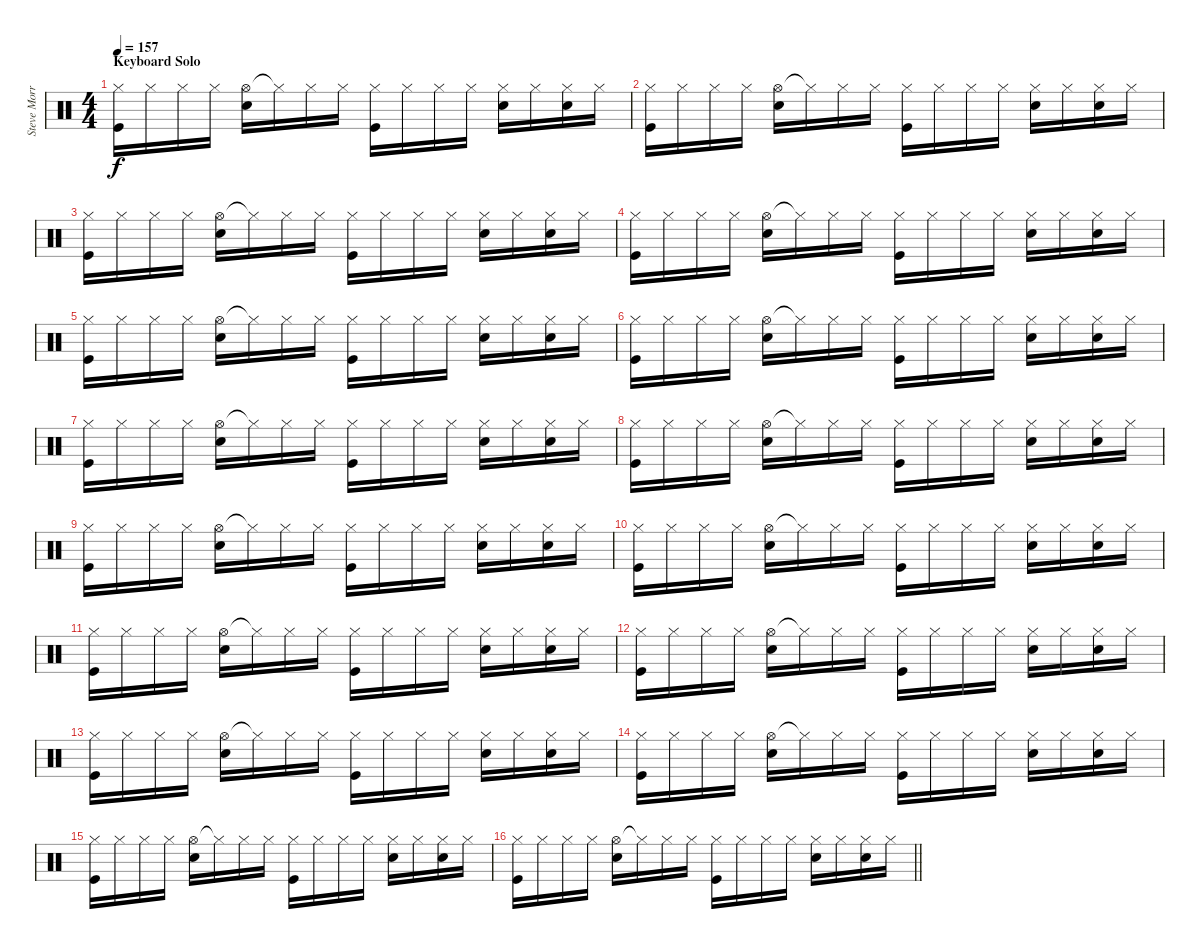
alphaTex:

\track ("Steve Morris" "Steve Morr") {instrument percussion}
\staff {score}
\articulation defaults
\ts (4 4)
\section ("" "Keyboard Solo")
\tempo 157
\clef neutral
\ks c
("Hi-Hat (closed)" "Kick (hit)").16{dy f} "Hi-Hat (closed)".16 "Hi-Hat (closed)".16 "Hi-Hat (closed)".16 ("Hi-Hat (open)" "Electric Snare (hit)").16 "Hi-Hat (closed)"{t}.16 "Hi-Hat (closed)".16 "Hi-Hat (closed)".16 ("Hi-Hat (closed)" "Kick (hit)").16 "Hi-Hat (closed)".16 "Hi-Hat (closed)".16 "Hi-Hat (closed)".16 ("Hi-Hat (closed)" "Electric Snare (hit)").16 "Hi-Hat (closed)".16 ("Hi-Hat (closed)" "Electric Snare (hit)").16 "Hi-Hat (closed)".16 |
("Hi-Hat (closed)" "Kick (hit)").16 "Hi-Hat (closed)".16 "Hi-Hat (closed)".16 "Hi-Hat (closed)".16 ("Hi-Hat (open)" "Electric Snare (hit)").16 "Hi-Hat (closed)"{t}.16 "Hi-Hat (closed)".16 "Hi-Hat (closed)".16 ("Hi-Hat (closed)" "Kick (hit)").16 "Hi-Hat (closed)".16 "Hi-Hat (closed)".16 "Hi-Hat (closed)".16 ("Hi-Hat (closed)" "Electric Snare (hit)").16 "Hi-Hat (closed)".16 ("Hi-Hat (closed)" "Electric Snare (hit)").16 "Hi-Hat (closed)".16 |
("Hi-Hat (closed)" "Kick (hit)").16 "Hi-Hat (closed)".16 "Hi-Hat (closed)".16 "Hi-Hat (closed)".16 ("Hi-Hat (open)" "Electric Snare (hit)").16 "Hi-Hat (closed)"{t}.16 "Hi-Hat (closed)".16 "Hi-Hat (closed)".16 ("Hi-Hat (closed)" "Kick (hit)").16 "Hi-Hat (closed)".16 "Hi-Hat (closed)".16 "Hi-Hat (closed)".16 ("Hi-Hat (closed)" "Electric Snare (hit)").16 "Hi-Hat (closed)".16 ("Hi-Hat (closed)" "Electric Snare (hit)").16 "Hi-Hat (closed)".16 |
("Hi-Hat (closed)" "Kick (hit)").16 "Hi-Hat (closed)".16 "Hi-Hat (closed)".16 "Hi-Hat (closed)".16 ("Hi-Hat (open)" "Electric Snare (hit)").16 "Hi-Hat (closed)"{t}.16 "Hi-Hat (closed)".16 "Hi-Hat (closed)".16 ("Hi-Hat (closed)" "Kick (hit)").16 "Hi-Hat (closed)".16 "Hi-Hat (closed)".16 "Hi-Hat (closed)".16 ("Hi-Hat (closed)" "Electric Snare (hit)").16 "Hi-Hat (closed)".16 ("Hi-Hat (closed)" "Electric Snare (hit)").16 "Hi-Hat (closed)".16 |
("Hi-Hat (closed)" "Kick (hit)").16 "Hi-Hat (closed)".16 "Hi-Hat (closed)".16 "Hi-Hat (closed)".16 ("Hi-Hat (open)" "Electric Snare (hit)").16 "Hi-Hat (closed)"{t}.16 "Hi-Hat (closed)".16 "Hi-Hat (closed)".16 ("Hi-Hat (closed)" "Kick (hit)").16 "Hi-Hat (closed)".16 "Hi-Hat (closed)".16 "Hi-Hat (closed)".16 ("Hi-Hat (closed)" "Electric Snare (hit)").16 "Hi-Hat (closed)".16 ("Hi-Hat (closed)" "Electric Snare (hit)").16 "Hi-Hat (closed)".16 |
("Hi-Hat (closed)" "Kick (hit)").16 "Hi-Hat (closed)".16 "Hi-Hat (closed)".16 "Hi-Hat (closed)".16 ("Hi-Hat (open)" "Electric Snare (hit)").16 "Hi-Hat (closed)"{t}.16 "Hi-Hat (closed)".16 "Hi-Hat (closed)".16 ("Hi-Hat (closed)" "Kick (hit)").16 "Hi-Hat (closed)".16 "Hi-Hat (closed)".16 "Hi-Hat (closed)".16 ("Hi-Hat (closed)" "Electric Snare (hit)").16 "Hi-Hat (closed)".16 ("Hi-Hat (closed)" "Electric Snare (hit)").16 "Hi-Hat (closed)".16 |
("Hi-Hat (closed)" "Kick (hit)").16 "Hi-Hat (closed)".16 "Hi-Hat (closed)".16 "Hi-Hat (closed)".16 ("Hi-Hat (open)" "Electric Snare (hit)").16 "Hi-Hat (closed)"{t}.16 "Hi-Hat (closed)".16 "Hi-Hat (closed)".16 ("Hi-Hat (closed)" "Kick (hit)").16 "Hi-Hat (closed)".16 "Hi-Hat (closed)".16 "Hi-Hat (closed)".16 ("Hi-Hat (closed)" "Electric Snare (hit)").16 "Hi-Hat (closed)".16 ("Hi-Hat (closed)" "Electric Snare (hit)").16 "Hi-Hat (closed)".16 |
("Hi-Hat (closed)" "Kick (hit)").16 "Hi-Hat (closed)".16 "Hi-Hat (closed)".16 "Hi-Hat (closed)".16 ("Hi-Hat (open)" "Electric Snare (hit)").16 "Hi-Hat (closed)"{t}.16 "Hi-Hat (closed)".16 "Hi-Hat (closed)".16 ("Hi-Hat (closed)" "Kick (hit)").16 "Hi-Hat (closed)".16 "Hi-Hat (closed)".16 "Hi-Hat (closed)".16 ("Hi-Hat (closed)" "Electric Snare (hit)").16 "Hi-Hat (closed)".16 ("Hi-Hat (closed)" "Electric Snare (hit)").16 "Hi-Hat (closed)".16 |
("Hi-Hat (closed)" "Kick (hit)").16 "Hi-Hat (closed)".16 "Hi-Hat (closed)".16 "Hi-Hat (closed)".16 ("Hi-Hat (open)" "Electric Snare (hit)").16 "Hi-Hat (closed)"{t}.16 "Hi-Hat (closed)".16 "Hi-Hat (closed)".16 ("Hi-Hat (closed)" "Kick (hit)").16 "Hi-Hat (closed)".16 "Hi-Hat (closed)".16 "Hi-Hat (closed)".16 ("Hi-Hat (closed)" "Electric Snare (hit)").16 "Hi-Hat (closed)".16 ("Hi-Hat (closed)" "Electric Snare (hit)").16 "Hi-Hat (closed)".16 |
("Hi-Hat (closed)" "Kick (hit)").16 "Hi-Hat (closed)".16 "Hi-Hat (closed)".16 "Hi-Hat (closed)".16 ("Hi-Hat (open)" "Electric Snare (hit)").16 "Hi-Hat (closed)"{t}.16 "Hi-Hat (closed)".16 "Hi-Hat (closed)".16 ("Hi-Hat (closed)" "Kick (hit)").16 "Hi-Hat (closed)".16 "Hi-Hat (closed)".16 "Hi-Hat (closed)".16 ("Hi-Hat (closed)" "Electric Snare (hit)").16 "Hi-Hat (closed)".16 ("Hi-Hat (closed)" "Electric Snare (hit)").16 "Hi-Hat (closed)".16 |
("Hi-Hat (closed)" "Kick (hit)").16 "Hi-Hat (closed)".16 "Hi-Hat (closed)".16 "Hi-Hat (closed)".16 ("Hi-Hat (open)" "Electric Snare (hit)").16 "Hi-Hat (closed)"{t}.16 "Hi-Hat (closed)".16 "Hi-Hat (closed)".16 ("Hi-Hat (closed)" "Kick (hit)").16 "Hi-Hat (closed)".16 "Hi-Hat (closed)".16 "Hi-Hat (closed)".16 ("Hi-Hat (closed)" "Electric Snare (hit)").16 "Hi-Hat (closed)".16 ("Hi-Hat (closed)" "Electric Snare (hit)").16 "Hi-Hat (closed)".16 |
("Hi-Hat (closed)" "Kick (hit)").16 "Hi-Hat (closed)".16 "Hi-Hat (closed)".16 "Hi-Hat (closed)".16 ("Hi-Hat (open)" "Electric Snare (hit)").16 "Hi-Hat (closed)"{t}.16 "Hi-Hat (closed)".16 "Hi-Hat (closed)".16 ("Hi-Hat (closed)" "Kick (hit)").16 "Hi-Hat (closed)".16 "Hi-Hat (closed)".16 "Hi-Hat (closed)".16 ("Hi-Hat (closed)" "Electric Snare (hit)").16 "Hi-Hat (closed)".16 ("Hi-Hat (closed)" "Electric Snare (hit)").16 "Hi-Hat (closed)".16 |
("Hi-Hat (closed)" "Kick (hit)").16 "Hi-Hat (closed)".16 "Hi-Hat (closed)".16 "Hi-Hat (closed)".16 ("Hi-Hat (open)" "Electric Snare (hit)").16 "Hi-Hat (closed)"{t}.16 "Hi-Hat (closed)".16 "Hi-Hat (closed)".16 ("Hi-Hat (closed)" "Kick (hit)").16 "Hi-Hat (closed)".16 "Hi-Hat (closed)".16 "Hi-Hat (closed)".16 ("Hi-Hat (closed)" "Electric Snare (hit)").16 "Hi-Hat (closed)".16 ("Hi-Hat (closed)" "Electric Snare (hit)").16 "Hi-Hat (closed)".16 |
("Hi-Hat (closed)" "Kick (hit)").16 "Hi-Hat (closed)".16 "Hi-Hat (closed)".16 "Hi-Hat (closed)".16 ("Hi-Hat (open)" "Electric Snare (hit)").16 "Hi-Hat (closed)"{t}.16 "Hi-Hat (closed)".16 "Hi-Hat (closed)".16 ("Hi-Hat (closed)" "Kick (hit)").16 "Hi-Hat (closed)".16 "Hi-Hat (closed)".16 "Hi-Hat (closed)".16 ("Hi-Hat (closed)" "Electric Snare (hit)").16 "Hi-Hat (closed)".16 ("Hi-Hat (closed)" "Electric Snare (hit)").16 "Hi-Hat (closed)".16 |
("Hi-Hat (closed)" "Kick (hit)").16 "Hi-Hat (closed)".16 "Hi-Hat (closed)".16 "Hi-Hat (closed)".16 ("Hi-Hat (open)" "Electric Snare (hit)").16 "Hi-Hat (closed)"{t}.16 "Hi-Hat (closed)".16 "Hi-Hat (closed)".16 ("Hi-Hat (closed)" "Kick (hit)").16 "Hi-Hat (closed)".16 "Hi-Hat (closed)".16 "Hi-Hat (closed)".16 ("Hi-Hat (closed)" "Electric Snare (hit)").16 "Hi-Hat (closed)".16 ("Hi-Hat (closed)" "Electric Snare (hit)").16 "Hi-Hat (closed)".16 |
\barLineRight lightlight
("Hi-Hat (closed)" "Kick (hit)").16 "Hi-Hat (closed)".16 "Hi-Hat (closed)".16 "Hi-Hat (closed)".16 ("Hi-Hat (open)" "Electric Snare (hit)").16 "Hi-Hat (closed)"{t}.16 "Hi-Hat (closed)".16 "Hi-Hat (closed)".16 ("Hi-Hat (closed)" "Kick (hit)").16 "Hi-Hat (closed)".16 "Hi-Hat (closed)".16 "Hi-Hat (closed)".16 ("Hi-Hat (closed)" "Electric Snare (hit)").16 "Hi-Hat (closed)".16 ("Hi-Hat (closed)" "Electric Snare (hit)").16 "Hi-Hat (closed)".16
